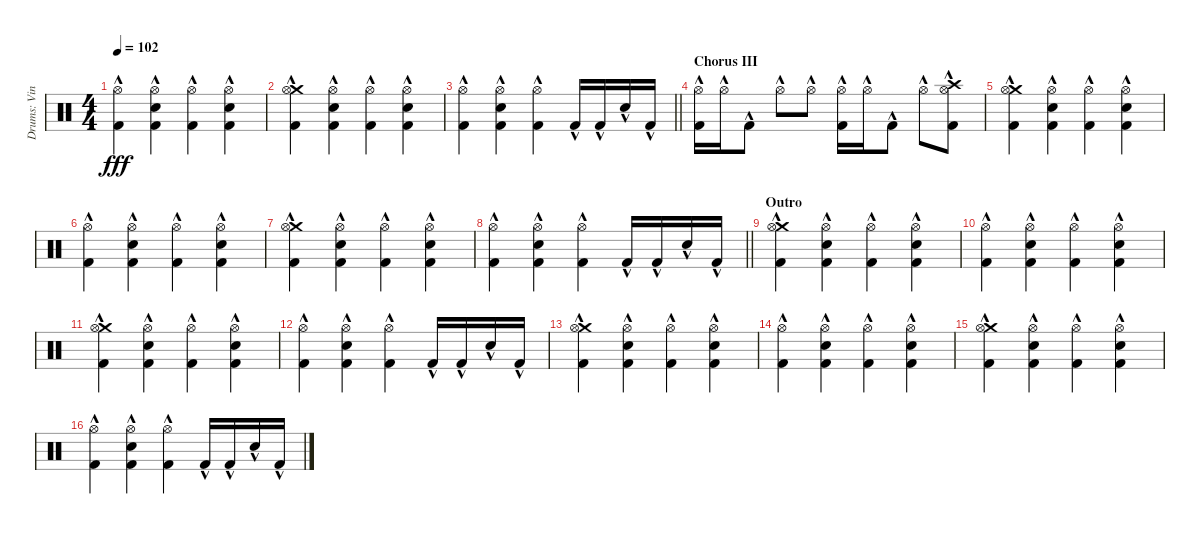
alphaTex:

\track ("Drums: Vinny" "Drums: Vin") {instrument percussion}
\staff {score}
\articulation defaults
\ts (4 4)
\tempo 102
\clef neutral
\ks c
("Hi-Hat (open)"{hac} "Kick (hit) 2"{hac}).4{dy fff} ("Hi-Hat (open)"{hac} "Snare (hit) 2"{hac} "Kick (hit) 2"{hac}).4 ("Hi-Hat (open)"{hac} "Kick (hit) 2"{hac}).4 ("Hi-Hat (open)"{hac} "Snare (hit) 2"{hac} "Kick (hit) 2"{hac}).4 |
("Crash medium (hit)"{hac} "Hi-Hat (open)"{hac} "Kick (hit) 2"{hac}).4 ("Hi-Hat (open)"{hac} "Snare (hit) 2"{hac} "Kick (hit) 2"{hac}).4 ("Hi-Hat (open)"{hac} "Kick (hit) 2"{hac}).4 ("Hi-Hat (open)"{hac} "Snare (hit) 2"{hac} "Kick (hit) 2"{hac}).4 |
\barLineRight lightlight
("Hi-Hat (open)"{hac} "Kick (hit) 2"{hac}).4 ("Hi-Hat (open)"{hac} "Snare (hit) 2"{hac} "Kick (hit) 2"{hac}).4 ("Hi-Hat (open)"{hac} "Kick (hit) 2"{hac}).4 "Kick (hit) 2"{hac}.16 "Kick (hit) 2"{hac}.16 "Snare (hit) 2"{hac}.16 "Kick (hit) 2"{hac}.16 |
\section ("" "Chorus III")
("Hi-Hat (open)"{hac} "Kick (hit) 2"{hac}).16 "Hi-Hat (open)"{hac}.16 "Kick (hit) 2"{hac}.8 "Hi-Hat (open)"{hac}.8 "Hi-Hat (open)"{hac}.8 ("Hi-Hat (open)"{hac} "Kick (hit) 2"{hac}).16 "Hi-Hat (open)"{hac}.16 "Kick (hit) 2"{hac}.8 "Hi-Hat (open)"{hac}.8 ("Crash high (hit)"{hac} "Hi-Hat (open)"{hac} "Kick (hit) 2"{hac}).8 |
("Crash medium (hit)"{hac} "Hi-Hat (open)"{hac} "Kick (hit) 2"{hac}).4 ("Hi-Hat (open)"{hac} "Snare (hit) 2"{hac} "Kick (hit) 2"{hac}).4 ("Hi-Hat (open)"{hac} "Kick (hit) 2"{hac}).4 ("Hi-Hat (open)"{hac} "Snare (hit) 2"{hac} "Kick (hit) 2"{hac}).4 |
("Hi-Hat (open)"{hac} "Kick (hit) 2"{hac}).4 ("Hi-Hat (open)"{hac} "Snare (hit) 2"{hac} "Kick (hit) 2"{hac}).4 ("Hi-Hat (open)"{hac} "Kick (hit) 2"{hac}).4 ("Hi-Hat (open)"{hac} "Snare (hit) 2"{hac} "Kick (hit) 2"{hac}).4 |
("Crash medium (hit)"{hac} "Hi-Hat (open)"{hac} "Kick (hit) 2"{hac}).4 ("Hi-Hat (open)"{hac} "Snare (hit) 2"{hac} "Kick (hit) 2"{hac}).4 ("Hi-Hat (open)"{hac} "Kick (hit) 2"{hac}).4 ("Hi-Hat (open)"{hac} "Snare (hit) 2"{hac} "Kick (hit) 2"{hac}).4 |
\barLineRight lightlight
("Hi-Hat (open)"{hac} "Kick (hit) 2"{hac}).4 ("Hi-Hat (open)"{hac} "Snare (hit) 2"{hac} "Kick (hit) 2"{hac}).4 ("Hi-Hat (open)"{hac} "Kick (hit) 2"{hac}).4 "Kick (hit) 2"{hac}.16 "Kick (hit) 2"{hac}.16 "Snare (hit) 2"{hac}.16 "Kick (hit) 2"{hac}.16 |
\section ("" "Outro")
("Crash medium (hit)"{hac} "Hi-Hat (open)"{hac} "Kick (hit) 2"{hac}).4 ("Hi-Hat (open)"{hac} "Snare (hit) 2"{hac} "Kick (hit) 2"{hac}).4 ("Hi-Hat (open)"{hac} "Kick (hit) 2"{hac}).4 ("Hi-Hat (open)"{hac} "Snare (hit) 2"{hac} "Kick (hit) 2"{hac}).4 |
("Hi-Hat (open)"{hac} "Kick (hit) 2"{hac}).4 ("Hi-Hat (open)"{hac} "Snare (hit) 2"{hac} "Kick (hit) 2"{hac}).4 ("Hi-Hat (open)"{hac} "Kick (hit) 2"{hac}).4 ("Hi-Hat (open)"{hac} "Snare (hit) 2"{hac} "Kick (hit) 2"{hac}).4 |
("Crash medium (hit)"{hac} "Hi-Hat (open)"{hac} "Kick (hit) 2"{hac}).4 ("Hi-Hat (open)"{hac} "Snare (hit) 2"{hac} "Kick (hit) 2"{hac}).4 ("Hi-Hat (open)"{hac} "Kick (hit) 2"{hac}).4 ("Hi-Hat (open)"{hac} "Snare (hit) 2"{hac} "Kick (hit) 2"{hac}).4 |
("Hi-Hat (open)"{hac} "Kick (hit) 2"{hac}).4 ("Hi-Hat (open)"{hac} "Snare (hit) 2"{hac} "Kick (hit) 2"{hac}).4 ("Hi-Hat (open)"{hac} "Kick (hit) 2"{hac}).4 "Kick (hit) 2"{hac}.16 "Kick (hit) 2"{hac}.16 "Snare (hit) 2"{hac}.16 "Kick (hit) 2"{hac}.16 |
("Crash medium (hit)"{hac} "Hi-Hat (open)"{hac} "Kick (hit) 2"{hac}).4 ("Hi-Hat (open)"{hac} "Snare (hit) 2"{hac} "Kick (hit) 2"{hac}).4 ("Hi-Hat (open)"{hac} "Kick (hit) 2"{hac}).4 ("Hi-Hat (open)"{hac} "Snare (hit) 2"{hac} "Kick (hit) 2"{hac}).4 |
("Hi-Hat (open)"{hac} "Kick (hit) 2"{hac}).4 ("Hi-Hat (open)"{hac} "Snare (hit) 2"{hac} "Kick (hit) 2"{hac}).4 ("Hi-Hat (open)"{hac} "Kick (hit) 2"{hac}).4 ("Hi-Hat (open)"{hac} "Snare (hit) 2"{hac} "Kick (hit) 2"{hac}).4 |
("Crash medium (hit)"{hac} "Hi-Hat (open)"{hac} "Kick (hit) 2"{hac}).4 ("Hi-Hat (open)"{hac} "Snare (hit) 2"{hac} "Kick (hit) 2"{hac}).4 ("Hi-Hat (open)"{hac} "Kick (hit) 2"{hac}).4 ("Hi-Hat (open)"{hac} "Snare (hit) 2"{hac} "Kick (hit) 2"{hac}).4 |
("Hi-Hat (open)"{hac} "Kick (hit) 2"{hac}).4 ("Hi-Hat (open)"{hac} "Snare (hit) 2"{hac} "Kick (hit) 2"{hac}).4 ("Hi-Hat (open)"{hac} "Kick (hit) 2"{hac}).4 "Kick (hit) 2"{hac}.16 "Kick (hit) 2"{hac}.16 "Snare (hit) 2"{hac}.16 "Kick (hit) 2"{hac}.16
